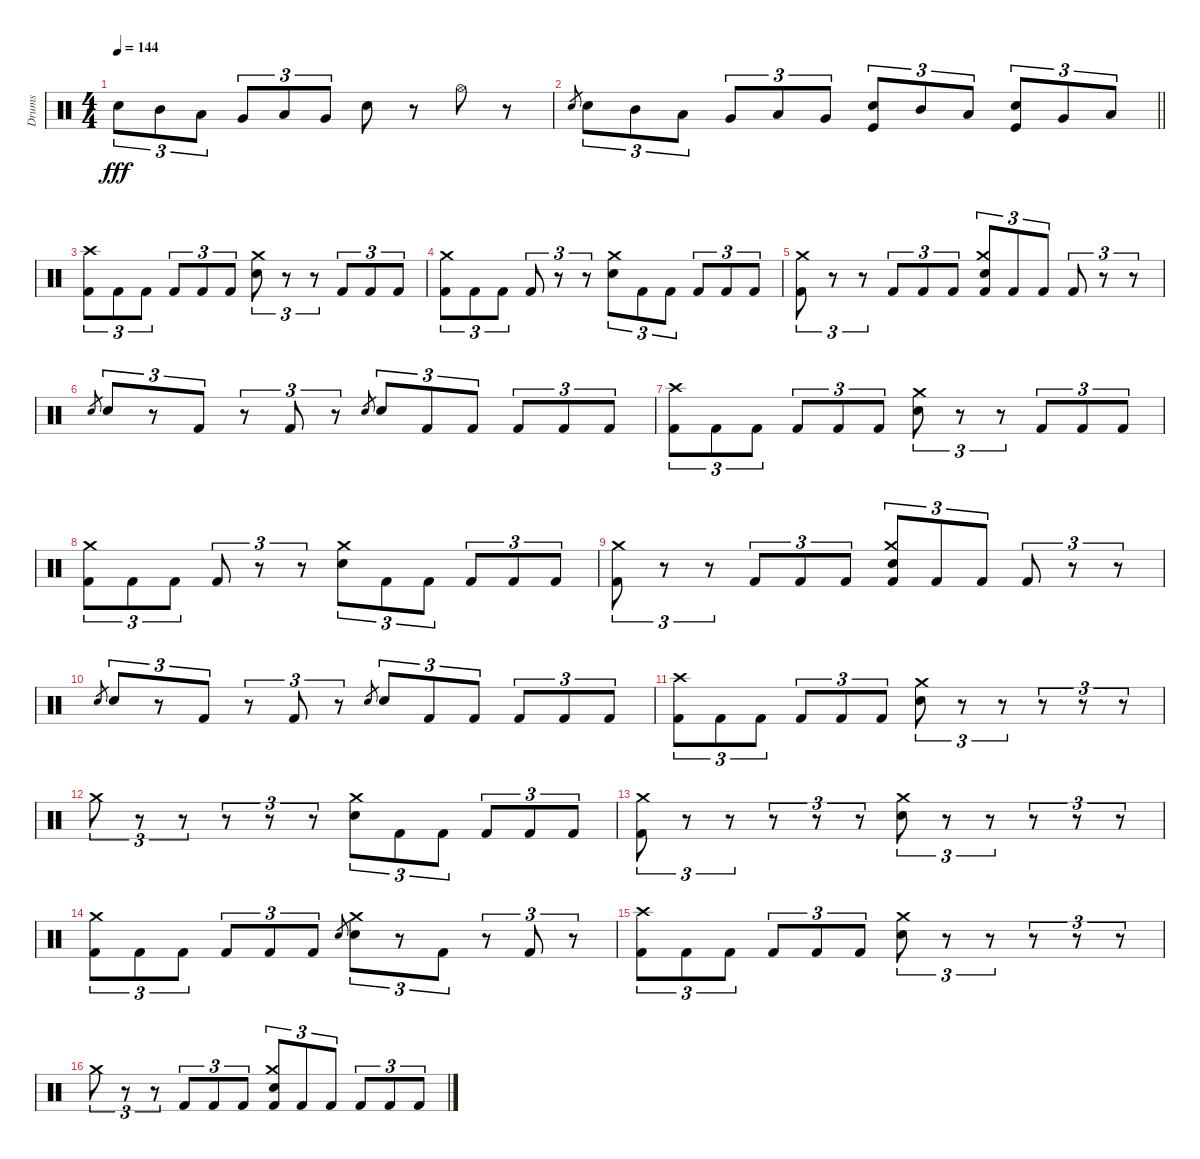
\track ("Drums" "Drums") {instrument percussion}
\staff {score}
\articulation defaults
\ts (4 4)
\tempo 144
\clef neutral
\ks c "Snare (hit) 2".8{tu (3 2) dy fff} "Mid Tom (hit)".8{tu (3 2)} "Low Tom (hit)".8{tu (3 2)} "Very Low Tom (hit)".8{tu (3 2)} "Low Floor Tom (hit)".8{tu (3 2)} "Very Low Tom (hit)".8{tu (3 2)} "Snare (hit) 2".8
r.8 "Hi-Hat (open)".8 r.8{volume 0} |
\barLineRight lightlight "Snare (hit) 2".8{gr} "Snare (hit) 2".8{tu (3 2) volume 16} "Mid Tom (hit)".8{tu (3 2)} "Low Tom (hit)".8{tu (3 2)} "Very Low Tom (hit)".8{tu (3 2)} "Low Floor Tom (hit)".8{tu (3 2)} "Very Low Tom (hit)".8{tu (3 2)}
("Snare (hit) 2" "Kick (hit)").8{tu (3 2)} "Mid Tom (hit)".8{tu (3 2)} "Low Tom (hit)".8{tu (3 2)} ("Snare (hit) 2" "Kick (hit)").8{tu (3 2)} "Very Low Tom (hit)".8{tu (3 2)} "Low Floor Tom (hit)".8{tu (3 2)} |
("Crash high (hit)" "Kick (hit) 2").8{tu (3 2)} "Kick (hit) 2".8{tu (3 2)} "Kick (hit) 2".8{tu (3 2)} "Kick (hit) 2".8{tu (3 2)} "Kick (hit) 2".8{tu (3 2)} "Kick (hit) 2".8{tu (3 2)} ("Crash medium (hit)" "Electric Snare (hit)").8{tu (3 2)} r.8{tu (3 2)} r.8{tu (3 2)} "Kick (hit) 2".8{tu (3 2)} "Kick (hit) 2".8{tu (3 2)} "Kick (hit) 2".8{tu (3 2)} |
("Crash medium (hit)" "Kick (hit) 2").8{tu (3 2)} "Kick (hit) 2".8{tu (3 2)} "Kick (hit) 2".8{tu (3 2)} "Kick (hit) 2".8{tu (3 2)} r.8{tu (3 2)} r.8{tu (3 2)} ("Crash medium (hit)" "Electric Snare (hit)").8{tu (3 2)} "Kick (hit) 2".8{tu (3 2)} "Kick (hit) 2".8{tu (3 2)} "Kick (hit) 2".8{tu (3 2)} "Kick (hit) 2".8{tu (3 2)} "Kick (hit) 2".8{tu (3 2)} |
("Crash medium (hit)" "Kick (hit) 2").8{tu (3 2)} r.8{tu (3 2)} r.8{tu (3 2)} "Kick (hit) 2".8{tu (3 2)} "Kick (hit) 2".8{tu (3 2)} "Kick (hit) 2".8{tu (3 2)} ("Crash medium (hit)" "Electric Snare (hit)" "Kick (hit) 2").8{tu (3 2)} "Kick (hit) 2".8{tu (3 2)} "Kick (hit) 2".8{tu (3 2)} "Kick (hit) 2".8{tu (3 2)} r.8{tu (3 2)} r.8{tu (3 2)} |
"Electric Snare (hit)".8{gr} "Electric Snare (hit)".8{tu (3 2)} r.8{tu (3 2)} "Kick (hit) 2".8{tu (3 2)} r.8{tu (3 2)} "Kick (hit) 2".8{tu (3 2)} r.8{tu (3 2)} "Electric Snare (hit)".8{gr} "Electric Snare (hit)".8{tu (3 2)} "Kick (hit) 2".8{tu (3 2)} "Kick (hit) 2".8{tu (3 2)} "Kick (hit) 2".8{tu (3 2)} "Kick (hit) 2".8{tu (3 2)} "Kick (hit) 2".8{tu (3 2)} |
("Crash high (hit)" "Kick (hit) 2").8{tu (3 2)} "Kick (hit) 2".8{tu (3 2)} "Kick (hit) 2".8{tu (3 2)} "Kick (hit) 2".8{tu (3 2)} "Kick (hit) 2".8{tu (3 2)} "Kick (hit) 2".8{tu (3 2)} ("Crash medium (hit)" "Electric Snare (hit)").8{tu (3 2)} r.8{tu (3 2)} r.8{tu (3 2)} "Kick (hit) 2".8{tu (3 2)} "Kick (hit) 2".8{tu (3 2)} "Kick (hit) 2".8{tu (3 2)} |
("Crash medium (hit)" "Kick (hit) 2").8{tu (3 2)} "Kick (hit) 2".8{tu (3 2)} "Kick (hit) 2".8{tu (3 2)} "Kick (hit) 2".8{tu (3 2)} r.8{tu (3 2)} r.8{tu (3 2)} ("Crash medium (hit)" "Electric Snare (hit)").8{tu (3 2)} "Kick (hit) 2".8{tu (3 2)} "Kick (hit) 2".8{tu (3 2)} "Kick (hit) 2".8{tu (3 2)} "Kick (hit) 2".8{tu (3 2)} "Kick (hit) 2".8{tu (3 2)} |
("Crash medium (hit)" "Kick (hit) 2").8{tu (3 2)} r.8{tu (3 2)} r.8{tu (3 2)} "Kick (hit) 2".8{tu (3 2)} "Kick (hit) 2".8{tu (3 2)} "Kick (hit) 2".8{tu (3 2)} ("Crash medium (hit)" "Electric Snare (hit)" "Kick (hit) 2").8{tu (3 2)} "Kick (hit) 2".8{tu (3 2)} "Kick (hit) 2".8{tu (3 2)} "Kick (hit) 2".8{tu (3 2)} r.8{tu (3 2)} r.8{tu (3 2)} |
"Electric Snare (hit)".8{gr} "Electric Snare (hit)".8{tu (3 2)} r.8{tu (3 2)} "Kick (hit) 2".8{tu (3 2)} r.8{tu (3 2)} "Kick (hit) 2".8{tu (3 2)} r.8{tu (3 2)} "Electric Snare (hit)".8{gr} "Electric Snare (hit)".8{tu (3 2)} "Kick (hit) 2".8{tu (3 2)} "Kick (hit) 2".8{tu (3 2)} "Kick (hit) 2".8{tu (3 2)} "Kick (hit) 2".8{tu (3 2)} "Kick (hit) 2".8{tu (3 2)} |
("Crash high (hit)" "Kick (hit) 2").8{tu (3 2)} "Kick (hit) 2".8{tu (3 2)} "Kick (hit) 2".8{tu (3 2)} "Kick (hit) 2".8{tu (3 2)} "Kick (hit) 2".8{tu (3 2)} "Kick (hit) 2".8{tu (3 2)} ("Crash medium (hit)" "Electric Snare (hit)").8{tu (3 2)} r.8{tu (3 2)} r.8{tu (3 2)} r.8{tu (3 2)} r.8{tu (3 2)} r.8{tu (3 2)} |
"Crash medium (hit)".8{tu (3 2)} r.8{tu (3 2)} r.8{tu (3 2)} r.8{tu (3 2)} r.8{tu (3 2)} r.8{tu (3 2)} ("Crash medium (hit)" "Electric Snare (hit)").8{tu (3 2)} "Kick (hit) 2".8{tu (3 2)} "Kick (hit) 2".8{tu (3 2)} "Kick (hit) 2".8{tu (3 2)} "Kick (hit) 2".8{tu (3 2)} "Kick (hit) 2".8{tu (3 2)} |
("Crash medium (hit)" "Kick (hit) 2").8{tu (3 2)} r.8{tu (3 2)} r.8{tu (3 2)} r.8{tu (3 2)} r.8{tu (3 2)} r.8{tu (3 2)} ("Crash medium (hit)" "Electric Snare (hit)").8{tu (3 2)} r.8{tu (3 2)} r.8{tu (3 2)} r.8{tu (3 2)} r.8{tu (3 2)} r.8{tu (3 2)} |
("Crash medium (hit)" "Kick (hit) 2").8{tu (3 2)} "Kick (hit) 2".8{tu (3 2)} "Kick (hit) 2".8{tu (3 2)} "Kick (hit) 2".8{tu (3 2)} "Kick (hit) 2".8{tu (3 2)} "Kick (hit) 2".8{tu (3 2)} "Electric Snare (hit)".8{gr} ("Crash medium (hit)" "Electric Snare (hit)").8{tu (3 2)} r.8{tu (3 2)} "Kick (hit) 2".8{tu (3 2)} r.8{tu (3 2)} "Kick (hit) 2".8{tu (3 2)} r.8{tu (3 2)} |
("Crash high (hit)" "Kick (hit) 2").8{tu (3 2)} "Kick (hit) 2".8{tu (3 2)} "Kick (hit) 2".8{tu (3 2)} "Kick (hit) 2".8{tu (3 2)} "Kick (hit) 2".8{tu (3 2)} "Kick (hit) 2".8{tu (3 2)} ("Crash medium (hit)" "Electric Snare (hit)").8{tu (3 2)} r.8{tu (3 2)} r.8{tu (3 2)} r.8{tu (3 2)} r.8{tu (3 2)} r.8{tu (3 2)} |
"Crash medium (hit)".8{tu (3 2)} r.8{tu (3 2)} r.8{tu (3 2)} "Kick (hit) 2".8{tu (3 2)} "Kick (hit) 2".8{tu (3 2)} "Kick (hit) 2".8{tu (3 2)} ("Crash medium (hit)" "Electric Snare (hit)" "Kick (hit) 2").8{tu (3 2)} "Kick (hit) 2".8{tu (3 2)} "Kick (hit) 2".8{tu (3 2)} "Kick (hit) 2".8{tu (3 2)} "Kick (hit) 2".8{tu (3 2)} "Kick (hit) 2".8{tu (3 2)}
